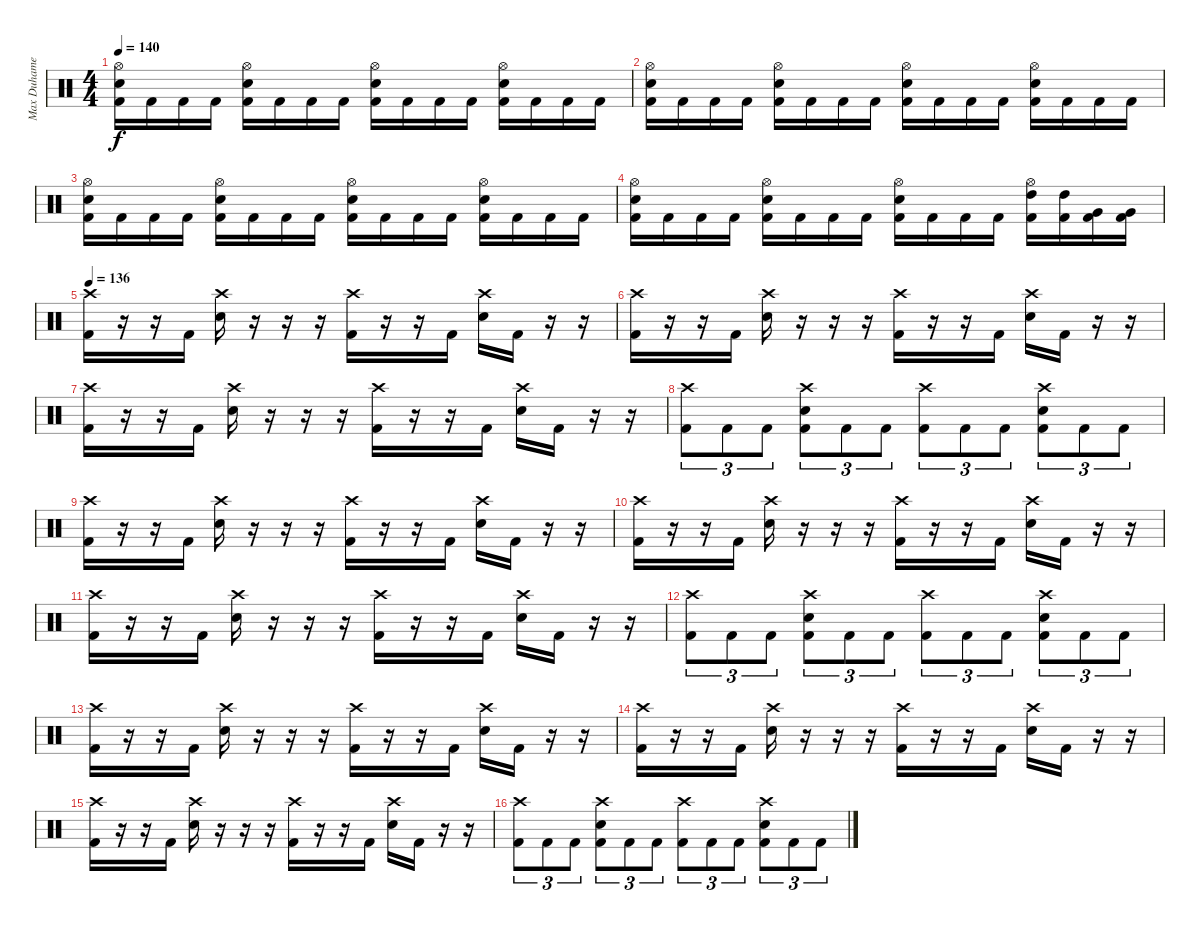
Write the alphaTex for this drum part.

\track ("Max Duhamel (Drums)" "Max Duhame") {instrument percussion}
\staff {score}
\articulation defaults
\ts (4 4)
\tempo 140
\clef neutral
\ks c
("Hi-Hat (open)" "Electric Snare (hit)" "Kick (hit) 2").16{dy f} "Kick (hit) 2".16 "Kick (hit) 2".16 "Kick (hit) 2".16 ("Hi-Hat (open)" "Electric Snare (hit)" "Kick (hit) 2").16 "Kick (hit) 2".16 "Kick (hit) 2".16 "Kick (hit) 2".16 ("Hi-Hat (open)" "Electric Snare (hit)" "Kick (hit) 2").16 "Kick (hit) 2".16 "Kick (hit) 2".16 "Kick (hit) 2".16 ("Hi-Hat (open)" "Electric Snare (hit)" "Kick (hit) 2").16 "Kick (hit) 2".16 "Kick (hit) 2".16 "Kick (hit) 2".16 |
("Hi-Hat (open)" "Electric Snare (hit)" "Kick (hit) 2").16 "Kick (hit) 2".16 "Kick (hit) 2".16 "Kick (hit) 2".16 ("Hi-Hat (open)" "Electric Snare (hit)" "Kick (hit) 2").16 "Kick (hit) 2".16 "Kick (hit) 2".16 "Kick (hit) 2".16 ("Hi-Hat (open)" "Electric Snare (hit)" "Kick (hit) 2").16 "Kick (hit) 2".16 "Kick (hit) 2".16 "Kick (hit) 2".16 ("Hi-Hat (open)" "Electric Snare (hit)" "Kick (hit) 2").16 "Kick (hit) 2".16 "Kick (hit) 2".16 "Kick (hit) 2".16 |
("Hi-Hat (open)" "Electric Snare (hit)" "Kick (hit) 2").16 "Kick (hit) 2".16 "Kick (hit) 2".16 "Kick (hit) 2".16 ("Hi-Hat (open)" "Electric Snare (hit)" "Kick (hit) 2").16 "Kick (hit) 2".16 "Kick (hit) 2".16 "Kick (hit) 2".16 ("Hi-Hat (open)" "Electric Snare (hit)" "Kick (hit) 2").16 "Kick (hit) 2".16 "Kick (hit) 2".16 "Kick (hit) 2".16 ("Hi-Hat (open)" "Electric Snare (hit)" "Kick (hit) 2").16 "Kick (hit) 2".16 "Kick (hit) 2".16 "Kick (hit) 2".16 |
("Hi-Hat (open)" "Electric Snare (hit)" "Kick (hit) 2").16 "Kick (hit) 2".16 "Kick (hit) 2".16 "Kick (hit) 2".16 ("Hi-Hat (open)" "Electric Snare (hit)" "Kick (hit) 2").16 "Kick (hit) 2".16 "Kick (hit) 2".16 "Kick (hit) 2".16 ("Hi-Hat (open)" "Electric Snare (hit)" "Kick (hit) 2").16 "Kick (hit) 2".16 "Kick (hit) 2".16 "Kick (hit) 2".16 ("Hi-Hat (open)" "High Tom (hit)" "Kick (hit) 2").16 ("High Tom (hit)" "Kick (hit) 2").16 ("Very Low Tom (hit)" "Kick (hit) 2").16 ("Very Low Tom (hit)" "Kick (hit) 2").16 |
\tempo 136
("Crash high (hit)" "Kick (hit) 2").16 r.16 r.16 "Kick (hit) 2".16 ("Crash high (hit)" "Electric Snare (hit)").16 r.16 r.16 r.16 ("Crash high (hit)" "Kick (hit) 2").16 r.16 r.16 "Kick (hit) 2".16 ("Crash high (hit)" "Electric Snare (hit)").16 "Kick (hit) 2".16 r.16 r.16 |
("Crash high (hit)" "Kick (hit) 2").16 r.16 r.16 "Kick (hit) 2".16 ("Crash high (hit)" "Electric Snare (hit)").16 r.16 r.16 r.16 ("Crash high (hit)" "Kick (hit) 2").16 r.16 r.16 "Kick (hit) 2".16 ("Crash high (hit)" "Electric Snare (hit)").16 "Kick (hit) 2".16 r.16 r.16 |
("Crash high (hit)" "Kick (hit) 2").16 r.16 r.16 "Kick (hit) 2".16 ("Crash high (hit)" "Electric Snare (hit)").16 r.16 r.16 r.16 ("Crash high (hit)" "Kick (hit) 2").16 r.16 r.16 "Kick (hit) 2".16 ("Crash high (hit)" "Electric Snare (hit)").16 "Kick (hit) 2".16 r.16 r.16 |
("Crash high (hit)" "Kick (hit) 2").8{tu (3 2)} "Kick (hit) 2".8{tu (3 2)} "Kick (hit) 2".8{tu (3 2)} ("Crash high (hit)" "Electric Snare (hit)" "Kick (hit) 2").8{tu (3 2)} "Kick (hit) 2".8{tu (3 2)} "Kick (hit) 2".8{tu (3 2)} ("Crash high (hit)" "Kick (hit) 2").8{tu (3 2)} "Kick (hit) 2".8{tu (3 2)} "Kick (hit) 2".8{tu (3 2)} ("Crash high (hit)" "Electric Snare (hit)" "Kick (hit) 2").8{tu (3 2)} "Kick (hit) 2".8{tu (3 2)} "Kick (hit) 2".8{tu (3 2)} |
("Crash high (hit)" "Kick (hit) 2").16 r.16 r.16 "Kick (hit) 2".16 ("Crash high (hit)" "Electric Snare (hit)").16 r.16 r.16 r.16 ("Crash high (hit)" "Kick (hit) 2").16 r.16 r.16 "Kick (hit) 2".16 ("Crash high (hit)" "Electric Snare (hit)").16 "Kick (hit) 2".16 r.16 r.16 |
("Crash high (hit)" "Kick (hit) 2").16 r.16 r.16 "Kick (hit) 2".16 ("Crash high (hit)" "Electric Snare (hit)").16 r.16 r.16 r.16 ("Crash high (hit)" "Kick (hit) 2").16 r.16 r.16 "Kick (hit) 2".16 ("Crash high (hit)" "Electric Snare (hit)").16 "Kick (hit) 2".16 r.16 r.16 |
("Crash high (hit)" "Kick (hit) 2").16 r.16 r.16 "Kick (hit) 2".16 ("Crash high (hit)" "Electric Snare (hit)").16 r.16 r.16 r.16 ("Crash high (hit)" "Kick (hit) 2").16 r.16 r.16 "Kick (hit) 2".16 ("Crash high (hit)" "Electric Snare (hit)").16 "Kick (hit) 2".16 r.16 r.16 |
("Crash high (hit)" "Kick (hit) 2").8{tu (3 2)} "Kick (hit) 2".8{tu (3 2)} "Kick (hit) 2".8{tu (3 2)} ("Crash high (hit)" "Electric Snare (hit)" "Kick (hit) 2").8{tu (3 2)} "Kick (hit) 2".8{tu (3 2)} "Kick (hit) 2".8{tu (3 2)} ("Crash high (hit)" "Kick (hit) 2").8{tu (3 2)} "Kick (hit) 2".8{tu (3 2)} "Kick (hit) 2".8{tu (3 2)} ("Crash high (hit)" "Electric Snare (hit)" "Kick (hit) 2").8{tu (3 2)} "Kick (hit) 2".8{tu (3 2)} "Kick (hit) 2".8{tu (3 2)} |
("Crash high (hit)" "Kick (hit) 2").16 r.16 r.16 "Kick (hit) 2".16 ("Crash high (hit)" "Electric Snare (hit)").16 r.16 r.16 r.16 ("Crash high (hit)" "Kick (hit) 2").16 r.16 r.16 "Kick (hit) 2".16 ("Crash high (hit)" "Electric Snare (hit)").16 "Kick (hit) 2".16 r.16 r.16 |
("Crash high (hit)" "Kick (hit) 2").16 r.16 r.16 "Kick (hit) 2".16 ("Crash high (hit)" "Electric Snare (hit)").16 r.16 r.16 r.16 ("Crash high (hit)" "Kick (hit) 2").16 r.16 r.16 "Kick (hit) 2".16 ("Crash high (hit)" "Electric Snare (hit)").16 "Kick (hit) 2".16 r.16 r.16 |
("Crash high (hit)" "Kick (hit) 2").16 r.16 r.16 "Kick (hit) 2".16 ("Crash high (hit)" "Electric Snare (hit)").16 r.16 r.16 r.16 ("Crash high (hit)" "Kick (hit) 2").16 r.16 r.16 "Kick (hit) 2".16 ("Crash high (hit)" "Electric Snare (hit)").16 "Kick (hit) 2".16 r.16 r.16 |
("Crash high (hit)" "Kick (hit) 2").8{tu (3 2)} "Kick (hit) 2".8{tu (3 2)} "Kick (hit) 2".8{tu (3 2)} ("Crash high (hit)" "Electric Snare (hit)" "Kick (hit) 2").8{tu (3 2)} "Kick (hit) 2".8{tu (3 2)} "Kick (hit) 2".8{tu (3 2)} ("Crash high (hit)" "Kick (hit) 2").8{tu (3 2)} "Kick (hit) 2".8{tu (3 2)} "Kick (hit) 2".8{tu (3 2)} ("Crash high (hit)" "Electric Snare (hit)" "Kick (hit) 2").8{tu (3 2)} "Kick (hit) 2".8{tu (3 2)} "Kick (hit) 2".8{tu (3 2)}
